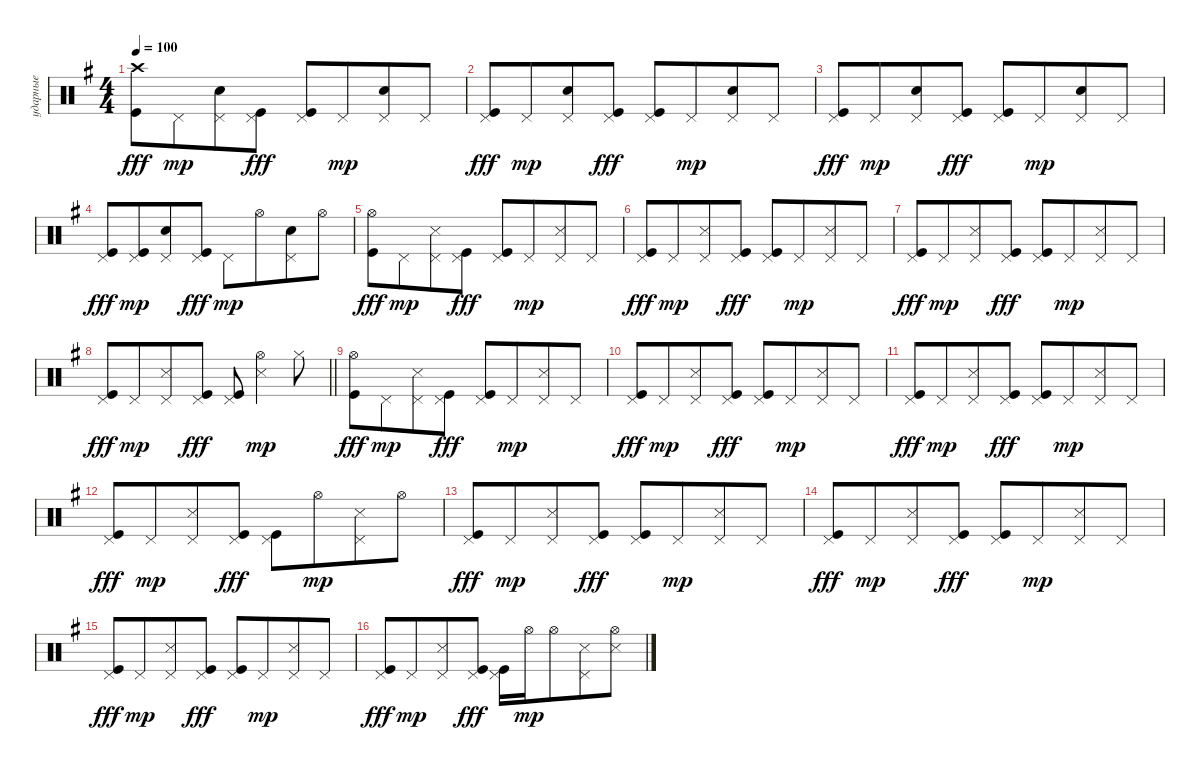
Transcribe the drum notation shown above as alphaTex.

\track ("ударные" "ударные") {instrument percussion}
\staff {score}
\articulation defaults
\ts (4 4)
\section ("" "")
\tempo 100
\clef neutral
\ks eminor
("Crash high (hit)" "Kick (hit)").8{dy fff} "Pedal Hi-Hat (hit)".8{dy mp beam merge} ("Pedal Hi-Hat (hit)" "Snare (hit) 2").8 ("Pedal Hi-Hat (hit)" "Kick (hit)").8{dy fff} ("Pedal Hi-Hat (hit)" "Kick (hit)").8 "Pedal Hi-Hat (hit)".8{dy mp beam merge} ("Pedal Hi-Hat (hit)" "Snare (hit) 2").8 "Pedal Hi-Hat (hit)".8 |
("Pedal Hi-Hat (hit)" "Kick (hit)").8{dy fff} "Pedal Hi-Hat (hit)".8{dy mp beam merge} ("Pedal Hi-Hat (hit)" "Snare (hit) 2").8 ("Pedal Hi-Hat (hit)" "Kick (hit)").8{dy fff} ("Pedal Hi-Hat (hit)" "Kick (hit)").8 "Pedal Hi-Hat (hit)".8{dy mp beam merge} ("Pedal Hi-Hat (hit)" "Snare (hit) 2").8 "Pedal Hi-Hat (hit)".8 |
("Pedal Hi-Hat (hit)" "Kick (hit)").8{dy fff} "Pedal Hi-Hat (hit)".8{dy mp beam merge} ("Pedal Hi-Hat (hit)" "Snare (hit) 2").8 ("Pedal Hi-Hat (hit)" "Kick (hit)").8{dy fff} ("Pedal Hi-Hat (hit)" "Kick (hit)").8 "Pedal Hi-Hat (hit)".8{dy mp beam merge} ("Pedal Hi-Hat (hit)" "Snare (hit) 2").8 "Pedal Hi-Hat (hit)".8 |
("Pedal Hi-Hat (hit)" "Kick (hit)").8{dy fff} ("Pedal Hi-Hat (hit)" "Kick (hit)").8{dy mp beam merge} ("Pedal Hi-Hat (hit)" "Snare (hit) 2").8 ("Pedal Hi-Hat (hit)" "Kick (hit)").8{dy fff} "Pedal Hi-Hat (hit)".8{dy mp} "Hi-Hat (open)".8{beam merge} ("Pedal Hi-Hat (hit)" "Snare (hit) 2").8 "Hi-Hat (open)".8 |
("Hi-Hat (open)" "Kick (hit)").8{dy fff} "Pedal Hi-Hat (hit)".8{dy mp beam merge} ("Pedal Hi-Hat (hit)" "Snare (side stick) 3").8 ("Pedal Hi-Hat (hit)" "Kick (hit)").8{dy fff} ("Pedal Hi-Hat (hit)" "Kick (hit)").8 "Pedal Hi-Hat (hit)".8{dy mp beam merge} ("Pedal Hi-Hat (hit)" "Snare (side stick) 3").8 "Pedal Hi-Hat (hit)".8 |
("Pedal Hi-Hat (hit)" "Kick (hit)").8{dy fff} "Pedal Hi-Hat (hit)".8{dy mp beam merge} ("Pedal Hi-Hat (hit)" "Snare (side stick) 3").8 ("Pedal Hi-Hat (hit)" "Kick (hit)").8{dy fff} ("Pedal Hi-Hat (hit)" "Kick (hit)").8 "Pedal Hi-Hat (hit)".8{dy mp beam merge} ("Pedal Hi-Hat (hit)" "Snare (side stick) 3").8 "Pedal Hi-Hat (hit)".8 |
("Pedal Hi-Hat (hit)" "Kick (hit)").8{dy fff} "Pedal Hi-Hat (hit)".8{dy mp beam merge} ("Pedal Hi-Hat (hit)" "Snare (side stick) 3").8 ("Pedal Hi-Hat (hit)" "Kick (hit)").8{dy fff} ("Pedal Hi-Hat (hit)" "Kick (hit)").8 "Pedal Hi-Hat (hit)".8{dy mp beam merge} ("Pedal Hi-Hat (hit)" "Snare (side stick) 3").8 "Pedal Hi-Hat (hit)".8 |
\barLineRight lightlight
("Pedal Hi-Hat (hit)" "Kick (hit)").8{dy fff} "Pedal Hi-Hat (hit)".8{dy mp beam merge} ("Pedal Hi-Hat (hit)" "Snare (side stick) 3").8 ("Pedal Hi-Hat (hit)" "Kick (hit)").8{dy fff} ("Pedal Hi-Hat (hit)" "Kick (hit)").8 ("Hi-Hat (open)" "Snare (side stick) 3").4{dy mp} "Hi-Hat (closed)".8 |
\section ("" "")
("Hi-Hat (open)" "Kick (hit)").8{dy fff} "Pedal Hi-Hat (hit)".8{dy mp beam merge} ("Pedal Hi-Hat (hit)" "Snare (side stick) 3").8 ("Pedal Hi-Hat (hit)" "Kick (hit)").8{dy fff} ("Pedal Hi-Hat (hit)" "Kick (hit)").8 "Pedal Hi-Hat (hit)".8{dy mp beam merge} ("Pedal Hi-Hat (hit)" "Snare (side stick) 3").8 "Pedal Hi-Hat (hit)".8 |
("Pedal Hi-Hat (hit)" "Kick (hit)").8{dy fff} "Pedal Hi-Hat (hit)".8{dy mp beam merge} ("Pedal Hi-Hat (hit)" "Snare (side stick) 3").8 ("Pedal Hi-Hat (hit)" "Kick (hit)").8{dy fff} ("Pedal Hi-Hat (hit)" "Kick (hit)").8 "Pedal Hi-Hat (hit)".8{dy mp beam merge} ("Pedal Hi-Hat (hit)" "Snare (side stick) 3").8 "Pedal Hi-Hat (hit)".8 |
("Pedal Hi-Hat (hit)" "Kick (hit)").8{dy fff} "Pedal Hi-Hat (hit)".8{dy mp beam merge} ("Pedal Hi-Hat (hit)" "Snare (side stick) 3").8 ("Pedal Hi-Hat (hit)" "Kick (hit)").8{dy fff} ("Pedal Hi-Hat (hit)" "Kick (hit)").8 "Pedal Hi-Hat (hit)".8{dy mp beam merge} ("Pedal Hi-Hat (hit)" "Snare (side stick) 3").8 "Pedal Hi-Hat (hit)".8 |
("Pedal Hi-Hat (hit)" "Kick (hit)").8{dy fff} "Pedal Hi-Hat (hit)".8{dy mp beam merge} ("Pedal Hi-Hat (hit)" "Snare (side stick) 3").8 ("Pedal Hi-Hat (hit)" "Kick (hit)").8{dy fff} ("Pedal Hi-Hat (hit)" "Kick (hit)").8 "Hi-Hat (open)".8{dy mp beam merge} ("Pedal Hi-Hat (hit)" "Snare (side stick) 3").8 "Hi-Hat (open)".8 |
("Pedal Hi-Hat (hit)" "Kick (hit)").8{dy fff} "Pedal Hi-Hat (hit)".8{dy mp beam merge} ("Pedal Hi-Hat (hit)" "Snare (side stick) 3").8 ("Pedal Hi-Hat (hit)" "Kick (hit)").8{dy fff} ("Pedal Hi-Hat (hit)" "Kick (hit)").8 "Pedal Hi-Hat (hit)".8{dy mp beam merge} ("Pedal Hi-Hat (hit)" "Snare (side stick) 3").8 "Pedal Hi-Hat (hit)".8 |
("Pedal Hi-Hat (hit)" "Kick (hit)").8{dy fff} "Pedal Hi-Hat (hit)".8{dy mp beam merge} ("Pedal Hi-Hat (hit)" "Snare (side stick) 3").8 ("Pedal Hi-Hat (hit)" "Kick (hit)").8{dy fff} ("Pedal Hi-Hat (hit)" "Kick (hit)").8 "Pedal Hi-Hat (hit)".8{dy mp beam merge} ("Pedal Hi-Hat (hit)" "Snare (side stick) 3").8 "Pedal Hi-Hat (hit)".8 |
("Pedal Hi-Hat (hit)" "Kick (hit)").8{dy fff} "Pedal Hi-Hat (hit)".8{dy mp beam merge} ("Pedal Hi-Hat (hit)" "Snare (side stick) 3").8 ("Pedal Hi-Hat (hit)" "Kick (hit)").8{dy fff} ("Pedal Hi-Hat (hit)" "Kick (hit)").8 "Pedal Hi-Hat (hit)".8{dy mp beam merge} ("Pedal Hi-Hat (hit)" "Snare (side stick) 3").8 "Pedal Hi-Hat (hit)".8 |
("Pedal Hi-Hat (hit)" "Kick (hit)").8{dy fff} "Pedal Hi-Hat (hit)".8{dy mp beam merge} ("Pedal Hi-Hat (hit)" "Snare (side stick) 3").8 ("Pedal Hi-Hat (hit)" "Kick (hit)").8{dy fff} ("Pedal Hi-Hat (hit)" "Kick (hit)").16 "Hi-Hat (open)".16{dy mp} "Hi-Hat (open)".8{beam merge} ("Pedal Hi-Hat (hit)" "Snare (side stick) 3").8 ("Hi-Hat (open)" "Metronome (hit)").8
